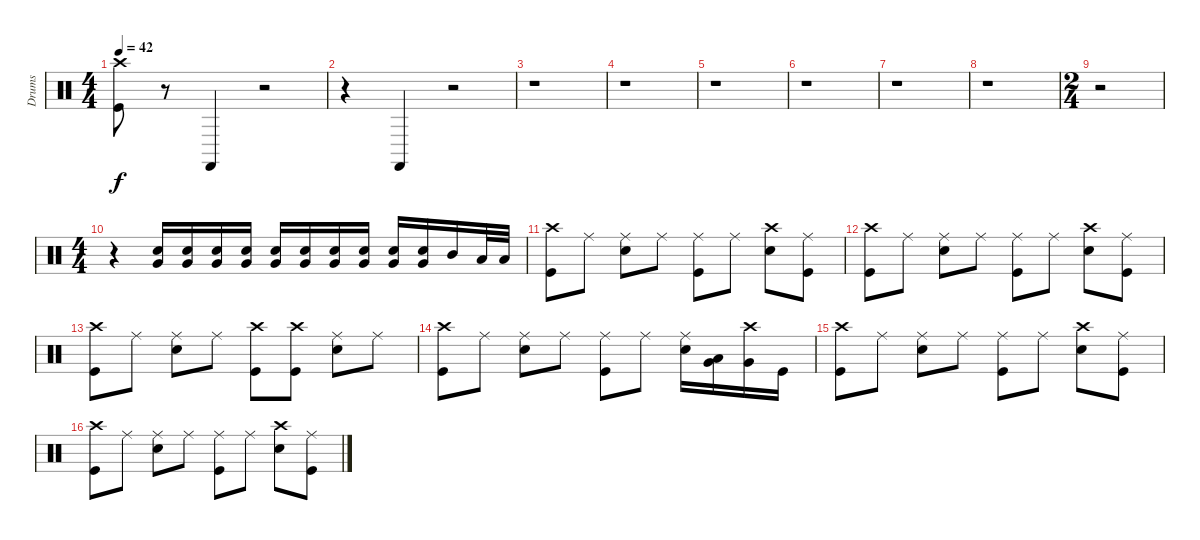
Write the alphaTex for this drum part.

\track ("Drums" "Drums") {instrument percussion}
\staff {score}
\articulation defaults
\ts (4 4)
\tempo 42
\clef neutral
\ks c
("Crash high (hit)" "Kick (hit)").8{dy f} r.8 "Castanets (hit)".4 r.2 |
r.4 "Castanets (hit)".4 r.2 |
r.1 |
r.1 |
r.1 |
r.1 |
r.1 |
r.1 |
\ts (2 4)
r.2 |
\ts (4 4)
r.4 ("Very Low Tom (hit)" "Snare (hit) 2").16 ("Very Low Tom (hit)" "Snare (hit) 2").16 ("Very Low Tom (hit)" "Snare (hit) 2").16 ("Very Low Tom (hit)" "Snare (hit) 2").16 ("Very Low Tom (hit)" "Snare (hit) 2").16 ("Very Low Tom (hit)" "Snare (hit) 2").16 ("Very Low Tom (hit)" "Snare (hit) 2").16 ("Very Low Tom (hit)" "Snare (hit) 2").16 ("Very Low Tom (hit)" "Snare (hit) 2").16 ("Very Low Tom (hit)" "Snare (hit) 2").16 "Mid Tom (hit)".16 "Low Tom (hit)".32 "Low Tom (hit)".32 |
("Crash high (hit)" "Kick (hit)").8 "Ride (middle)".8 ("Snare (hit) 2" "Ride (middle)").8 "Ride (middle)".8 ("Ride (middle)" "Kick (hit)").8 "Ride (middle)".8 ("Snare (hit) 2" "Crash high (hit)").8 ("Kick (hit)" "Ride (middle)").8 |
("Crash high (hit)" "Kick (hit)").8 "Ride (middle)".8 ("Snare (hit) 2" "Ride (middle)").8 "Ride (middle)".8 ("Ride (middle)" "Kick (hit)").8 "Ride (middle)".8 ("Snare (hit) 2" "Crash high (hit)").8 ("Kick (hit)" "Ride (middle)").8 |
("Crash high (hit)" "Kick (hit)").8 "Ride (middle)".8 ("Snare (hit) 2" "Ride (middle)").8 "Ride (middle)".8 ("Crash high (hit)" "Kick (hit)").8 ("Crash high (hit)" "Kick (hit)").8 ("Ride (middle)" "Snare (hit) 2").8 "Ride (middle)".8 |
("Crash high (hit)" "Kick (hit)").8 "Ride (middle)".8 ("Ride (middle)" "Snare (hit) 2").8 "Ride (middle)".8 ("Ride (middle)" "Kick (hit)").8 "Ride (middle)".8 ("Ride (middle)" "Snare (hit) 2").16 ("Low Tom (hit)" "Very Low Tom (hit)").16 ("Crash high (hit)" "Very Low Tom (hit)").16 "Kick (hit)".16 |
("Crash high (hit)" "Kick (hit)").8 "Ride (middle)".8 ("Snare (hit) 2" "Ride (middle)").8 "Ride (middle)".8 ("Ride (middle)" "Kick (hit)").8 "Ride (middle)".8 ("Snare (hit) 2" "Crash high (hit)").8 ("Kick (hit)" "Ride (middle)").8 |
("Crash high (hit)" "Kick (hit)").8 "Ride (middle)".8 ("Snare (hit) 2" "Ride (middle)").8 "Ride (middle)".8 ("Ride (middle)" "Kick (hit)").8 "Ride (middle)".8 ("Snare (hit) 2" "Crash high (hit)").8 ("Kick (hit)" "Ride (middle)").8
